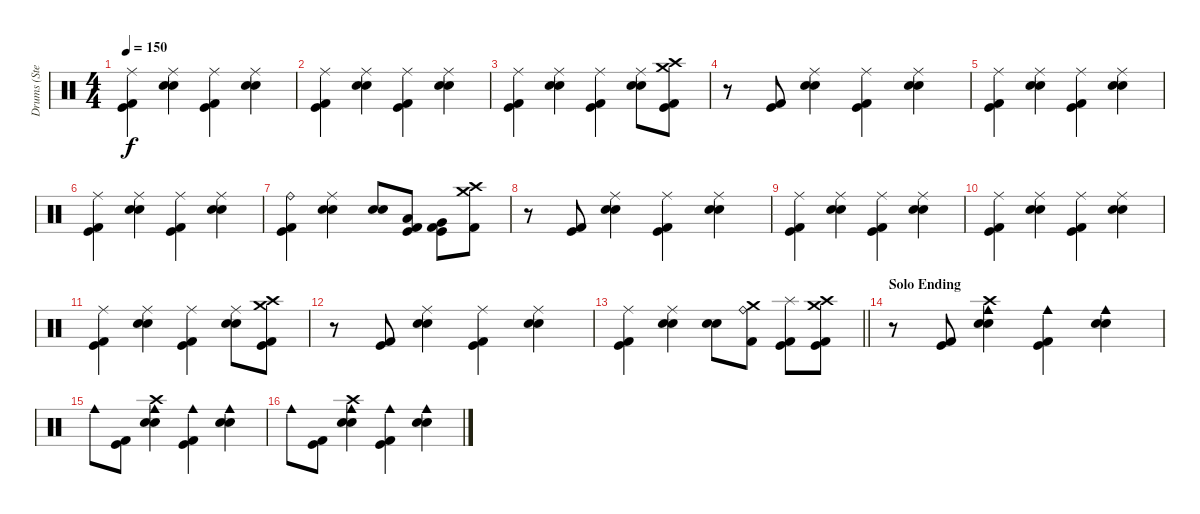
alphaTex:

\track ("Drums (Steven)" "Drums (Ste") {instrument percussion}
\staff {score}
\articulation defaults
\ts (4 4)
\tempo 150
\clef neutral
\ks c
("Kick (hit) 2" "Kick (hit)" "Ride (middle)").4{dy f} ("Electric Snare (hit)" "Snare (hit) 2" "Ride (middle)").4 ("Kick (hit) 2" "Kick (hit)" "Ride (middle)").4 ("Electric Snare (hit)" "Snare (hit) 2" "Ride (middle)").4 |
("Kick (hit) 2" "Kick (hit)" "Ride (middle)").4 ("Electric Snare (hit)" "Snare (hit) 2" "Ride (middle)").4 ("Kick (hit) 2" "Kick (hit)" "Ride (middle)").4 ("Electric Snare (hit)" "Snare (hit) 2" "Ride (middle)").4 |
("Kick (hit) 2" "Kick (hit)" "Ride (middle)").4 ("Electric Snare (hit)" "Snare (hit) 2" "Ride (middle)").4 ("Kick (hit) 2" "Kick (hit)" "Ride (middle)").4 ("Snare (hit) 2" "Electric Snare (hit)" "Ride (middle)").8 ("Kick (hit) 2" "Kick (hit)" "Crash medium (hit)" "Crash high (hit)").8 |
r.8 ("Kick (hit) 2" "Kick (hit)").8 ("Electric Snare (hit)" "Snare (hit) 2" "Ride (middle)").4 ("Kick (hit) 2" "Kick (hit)" "Ride (middle)").4 ("Electric Snare (hit)" "Snare (hit) 2" "Ride (middle)").4 |
("Kick (hit) 2" "Kick (hit)" "Ride (middle)").4 ("Electric Snare (hit)" "Snare (hit) 2" "Ride (middle)").4 ("Kick (hit) 2" "Kick (hit)" "Ride (middle)").4 ("Electric Snare (hit)" "Snare (hit) 2" "Ride (middle)").4 |
("Kick (hit) 2" "Kick (hit)" "Ride (middle)").4 ("Electric Snare (hit)" "Snare (hit) 2" "Ride (middle)").4 ("Kick (hit) 2" "Kick (hit)" "Ride (middle)").4 ("Electric Snare (hit)" "Snare (hit) 2" "Ride (middle)").4 |
("Kick (hit) 2" "Kick (hit)" "Ride (bell)").4 ("Electric Snare (hit)" "Snare (hit) 2" "Ride (middle)").4 ("Electric Snare (hit)" "Snare (hit) 2").8 ("Kick (hit) 2" "Kick (hit)" "Low Tom (hit)").8 ("Kick (hit) 2" "Kick (hit)" "Very Low Tom (hit)").8 ("Kick (hit) 2" "Crash high (hit)" "Crash medium (hit)").8 |
r.8 ("Kick (hit) 2" "Kick (hit)").8 ("Electric Snare (hit)" "Snare (hit) 2" "Ride (middle)").4 ("Kick (hit) 2" "Kick (hit)" "Ride (middle)").4 ("Electric Snare (hit)" "Snare (hit) 2" "Ride (middle)").4 |
("Kick (hit) 2" "Kick (hit)" "Ride (middle)").4 ("Electric Snare (hit)" "Snare (hit) 2" "Ride (middle)").4 ("Kick (hit) 2" "Kick (hit)" "Ride (middle)").4 ("Electric Snare (hit)" "Snare (hit) 2" "Ride (middle)").4 |
("Kick (hit) 2" "Kick (hit)" "Ride (middle)").4 ("Electric Snare (hit)" "Snare (hit) 2" "Ride (middle)").4 ("Kick (hit) 2" "Kick (hit)" "Ride (middle)").4 ("Electric Snare (hit)" "Snare (hit) 2" "Ride (middle)").4 |
("Kick (hit) 2" "Kick (hit)" "Ride (middle)").4 ("Electric Snare (hit)" "Snare (hit) 2" "Ride (middle)").4 ("Kick (hit) 2" "Kick (hit)" "Ride (middle)").4 ("Snare (hit) 2" "Electric Snare (hit)" "Ride (middle)").8 ("Kick (hit) 2" "Kick (hit)" "Crash medium (hit)" "Crash high (hit)").8 |
r.8 ("Kick (hit) 2" "Kick (hit)").8 ("Electric Snare (hit)" "Snare (hit) 2" "Ride (middle)").4 ("Kick (hit) 2" "Kick (hit)" "Ride (middle)").4 ("Electric Snare (hit)" "Snare (hit) 2" "Ride (middle)").4 |
\barLineRight lightlight
("Kick (hit) 2" "Kick (hit)" "Ride (middle)").4 ("Electric Snare (hit)" "Snare (hit) 2" "Ride (middle)").4 ("Electric Snare (hit)" "Snare (hit) 2").8 ("Kick (hit) 2" "Ride (bell)" "Crash medium (hit)").8 ("Kick (hit) 2" "Kick (hit)" "Splash (hit)").8 ("Kick (hit) 2" "Kick (hit)" "Crash high (hit)" "Crash medium (hit)").8 |
\section ("" "Solo Ending")
r.8 ("Kick (hit) 2" "Kick (hit)").8 ("Electric Snare (hit)" "Snare (hit) 2" "Cowbell medium (hit)" "Crash high (hit)").4 ("Kick (hit) 2" "Kick (hit)" "Cowbell medium (hit)").4 ("Electric Snare (hit)" "Snare (hit) 2" "Cowbell medium (hit)").4 |
"Cowbell medium (hit)".8 ("Kick (hit) 2" "Kick (hit)").8 ("Electric Snare (hit)" "Snare (hit) 2" "Cowbell medium (hit)" "Crash high (hit)").4 ("Kick (hit) 2" "Kick (hit)" "Cowbell medium (hit)").4 ("Electric Snare (hit)" "Snare (hit) 2" "Cowbell medium (hit)").4 |
"Cowbell medium (hit)".8 ("Kick (hit) 2" "Kick (hit)").8 ("Electric Snare (hit)" "Snare (hit) 2" "Cowbell medium (hit)" "Crash high (hit)").4 ("Kick (hit) 2" "Kick (hit)" "Cowbell medium (hit)").4 ("Electric Snare (hit)" "Snare (hit) 2" "Cowbell medium (hit)").4
